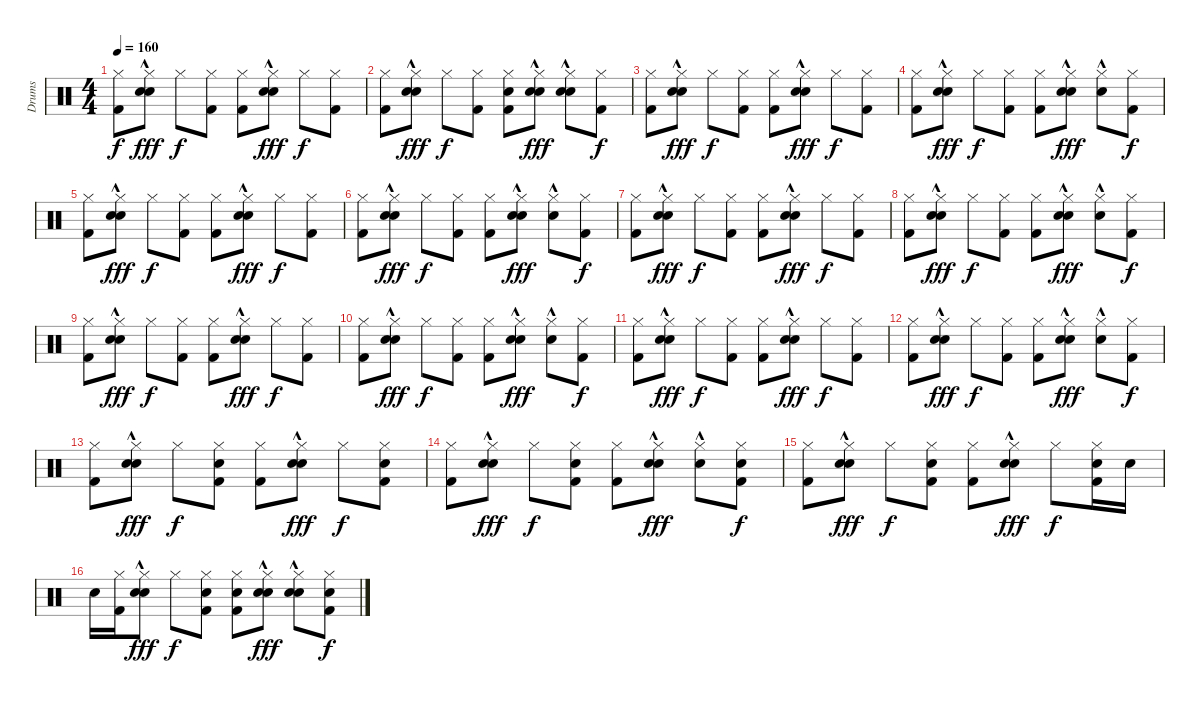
\track ("Drums" "Drums") {instrument percussion}
\staff {score}
\articulation defaults
\ts (4 4)
\tempo 160
\clef neutral
\ks c
("Hi-Hat (closed)" "Kick (hit) 2").8{dy f} ("Hi-Hat (closed)" "Electric Snare (hit)" "Hand Clap (hit)"{hac}).8{dy fff} "Hi-Hat (closed)".8{dy f} ("Hi-Hat (closed)" "Kick (hit) 2").8 ("Hi-Hat (closed)" "Kick (hit) 2").8 ("Hi-Hat (closed)" "Electric Snare (hit)" "Hand Clap (hit)"{hac}).8{dy fff} "Hi-Hat (closed)".8{dy f} ("Hi-Hat (closed)" "Kick (hit) 2").8 |
("Hi-Hat (closed)" "Kick (hit) 2").8 ("Hi-Hat (closed)" "Electric Snare (hit)" "Hand Clap (hit)"{hac}).8{dy fff} "Hi-Hat (closed)".8{dy f} ("Hi-Hat (closed)" "Kick (hit) 2").8 ("Hi-Hat (closed)" "Electric Snare (hit)" "Kick (hit) 2").8 ("Hi-Hat (closed)" "Electric Snare (hit)" "Hand Clap (hit)"{hac}).8{dy fff} ("Hi-Hat (closed)" "Electric Snare (hit)" "Hand Clap (hit)"{hac}).8 ("Hi-Hat (closed)" "Kick (hit) 2").8{dy f} |
("Hi-Hat (closed)" "Kick (hit) 2").8 ("Hi-Hat (closed)" "Electric Snare (hit)" "Hand Clap (hit)"{hac}).8{dy fff} "Hi-Hat (closed)".8{dy f} ("Hi-Hat (closed)" "Kick (hit) 2").8 ("Hi-Hat (closed)" "Kick (hit) 2").8 ("Hi-Hat (closed)" "Electric Snare (hit)" "Hand Clap (hit)"{hac}).8{dy fff} "Hi-Hat (closed)".8{dy f} ("Hi-Hat (closed)" "Kick (hit) 2").8 |
("Hi-Hat (closed)" "Kick (hit) 2").8 ("Hi-Hat (closed)" "Electric Snare (hit)" "Hand Clap (hit)"{hac}).8{dy fff} "Hi-Hat (closed)".8{dy f} ("Hi-Hat (closed)" "Kick (hit) 2").8 ("Hi-Hat (closed)" "Kick (hit) 2").8 ("Hi-Hat (closed)" "Electric Snare (hit)" "Hand Clap (hit)"{hac}).8{dy fff} ("Hi-Hat (closed)" "Hand Clap (hit)"{hac}).8 ("Hi-Hat (closed)" "Kick (hit) 2").8{dy f} |
("Hi-Hat (closed)" "Kick (hit) 2").8 ("Hi-Hat (closed)" "Electric Snare (hit)" "Hand Clap (hit)"{hac}).8{dy fff} "Hi-Hat (closed)".8{dy f} ("Hi-Hat (closed)" "Kick (hit) 2").8 ("Hi-Hat (closed)" "Kick (hit) 2").8 ("Hi-Hat (closed)" "Electric Snare (hit)" "Hand Clap (hit)"{hac}).8{dy fff} "Hi-Hat (closed)".8{dy f} ("Hi-Hat (closed)" "Kick (hit) 2").8 |
("Hi-Hat (closed)" "Kick (hit) 2").8 ("Hi-Hat (closed)" "Electric Snare (hit)" "Hand Clap (hit)"{hac}).8{dy fff} "Hi-Hat (closed)".8{dy f} ("Hi-Hat (closed)" "Kick (hit) 2").8 ("Hi-Hat (closed)" "Kick (hit) 2").8 ("Hi-Hat (closed)" "Electric Snare (hit)" "Hand Clap (hit)"{hac}).8{dy fff} ("Hi-Hat (closed)" "Hand Clap (hit)"{hac}).8 ("Hi-Hat (closed)" "Kick (hit) 2").8{dy f} |
("Hi-Hat (closed)" "Kick (hit) 2").8 ("Hi-Hat (closed)" "Electric Snare (hit)" "Hand Clap (hit)"{hac}).8{dy fff} "Hi-Hat (closed)".8{dy f} ("Hi-Hat (closed)" "Kick (hit) 2").8 ("Hi-Hat (closed)" "Kick (hit) 2").8 ("Hi-Hat (closed)" "Electric Snare (hit)" "Hand Clap (hit)"{hac}).8{dy fff} "Hi-Hat (closed)".8{dy f} ("Hi-Hat (closed)" "Kick (hit) 2").8 |
("Hi-Hat (closed)" "Kick (hit) 2").8 ("Hi-Hat (closed)" "Electric Snare (hit)" "Hand Clap (hit)"{hac}).8{dy fff} "Hi-Hat (closed)".8{dy f} ("Hi-Hat (closed)" "Kick (hit) 2").8 ("Hi-Hat (closed)" "Kick (hit) 2").8 ("Hi-Hat (closed)" "Electric Snare (hit)" "Hand Clap (hit)"{hac}).8{dy fff} ("Hi-Hat (closed)" "Hand Clap (hit)"{hac}).8 ("Hi-Hat (closed)" "Kick (hit) 2").8{dy f} |
("Hi-Hat (closed)" "Kick (hit) 2").8 ("Hi-Hat (closed)" "Electric Snare (hit)" "Hand Clap (hit)"{hac}).8{dy fff} "Hi-Hat (closed)".8{dy f} ("Hi-Hat (closed)" "Kick (hit) 2").8 ("Hi-Hat (closed)" "Kick (hit) 2").8 ("Hi-Hat (closed)" "Electric Snare (hit)" "Hand Clap (hit)"{hac}).8{dy fff} "Hi-Hat (closed)".8{dy f} ("Hi-Hat (closed)" "Kick (hit) 2").8 |
("Hi-Hat (closed)" "Kick (hit) 2").8 ("Hi-Hat (closed)" "Electric Snare (hit)" "Hand Clap (hit)"{hac}).8{dy fff} "Hi-Hat (closed)".8{dy f} ("Hi-Hat (closed)" "Kick (hit) 2").8 ("Hi-Hat (closed)" "Kick (hit) 2").8 ("Hi-Hat (closed)" "Electric Snare (hit)" "Hand Clap (hit)"{hac}).8{dy fff} ("Hi-Hat (closed)" "Hand Clap (hit)"{hac}).8 ("Hi-Hat (closed)" "Kick (hit) 2").8{dy f} |
("Hi-Hat (closed)" "Kick (hit) 2").8 ("Hi-Hat (closed)" "Electric Snare (hit)" "Hand Clap (hit)"{hac}).8{dy fff} "Hi-Hat (closed)".8{dy f} ("Hi-Hat (closed)" "Kick (hit) 2").8 ("Hi-Hat (closed)" "Kick (hit) 2").8 ("Hi-Hat (closed)" "Electric Snare (hit)" "Hand Clap (hit)"{hac}).8{dy fff} "Hi-Hat (closed)".8{dy f} ("Hi-Hat (closed)" "Kick (hit) 2").8 |
("Hi-Hat (closed)" "Kick (hit) 2").8 ("Hi-Hat (closed)" "Electric Snare (hit)" "Hand Clap (hit)"{hac}).8{dy fff} "Hi-Hat (closed)".8{dy f} ("Hi-Hat (closed)" "Kick (hit) 2").8 ("Hi-Hat (closed)" "Kick (hit) 2").8 ("Hi-Hat (closed)" "Electric Snare (hit)" "Hand Clap (hit)"{hac}).8{dy fff} ("Hi-Hat (closed)" "Hand Clap (hit)"{hac}).8 ("Hi-Hat (closed)" "Kick (hit) 2").8{dy f} |
("Hi-Hat (closed)" "Kick (hit) 2").8 ("Hi-Hat (closed)" "Electric Snare (hit)" "Hand Clap (hit)"{hac}).8{dy fff} "Hi-Hat (closed)".8{dy f} ("Hi-Hat (closed)" "Electric Snare (hit)" "Kick (hit) 2").8 ("Hi-Hat (closed)" "Kick (hit) 2").8 ("Hi-Hat (closed)" "Electric Snare (hit)" "Hand Clap (hit)"{hac}).8{dy fff} "Hi-Hat (closed)".8{dy f} ("Hi-Hat (closed)" "Electric Snare (hit)" "Kick (hit) 2").8 |
("Hi-Hat (closed)" "Kick (hit) 2").8 ("Hi-Hat (closed)" "Electric Snare (hit)" "Hand Clap (hit)"{hac}).8{dy fff} "Hi-Hat (closed)".8{dy f} ("Hi-Hat (closed)" "Electric Snare (hit)" "Kick (hit) 2").8 ("Hi-Hat (closed)" "Kick (hit) 2").8 ("Hi-Hat (closed)" "Electric Snare (hit)" "Hand Clap (hit)"{hac}).8{dy fff} ("Hi-Hat (closed)" "Hand Clap (hit)"{hac}).8 ("Hi-Hat (closed)" "Electric Snare (hit)" "Kick (hit) 2").8{dy f} |
("Hi-Hat (closed)" "Kick (hit) 2").8 ("Hi-Hat (closed)" "Electric Snare (hit)" "Hand Clap (hit)"{hac}).8{dy fff} "Hi-Hat (closed)".8{dy f} ("Hi-Hat (closed)" "Electric Snare (hit)" "Kick (hit) 2").8 ("Hi-Hat (closed)" "Kick (hit) 2").8 ("Hi-Hat (closed)" "Electric Snare (hit)" "Hand Clap (hit)"{hac}).8{dy fff} "Hi-Hat (closed)".8{dy f} ("Hi-Hat (closed)" "Electric Snare (hit)" "Kick (hit) 2").16 "Electric Snare (hit)".16 |
"Electric Snare (hit)".16 ("Hi-Hat (closed)" "Kick (hit) 2").16 ("Hi-Hat (closed)" "Electric Snare (hit)" "Hand Clap (hit)"{hac}).8{dy fff} "Hi-Hat (closed)".8{dy f} ("Hi-Hat (closed)" "Electric Snare (hit)" "Kick (hit) 2").8 ("Hi-Hat (closed)" "Electric Snare (hit)" "Kick (hit) 2").8 ("Hi-Hat (closed)" "Electric Snare (hit)" "Hand Clap (hit)"{hac}).8{dy fff} ("Hi-Hat (closed)" "Electric Snare (hit)" "Hand Clap (hit)"{hac}).8 ("Hi-Hat (closed)" "Electric Snare (hit)" "Kick (hit) 2").8{dy f}
